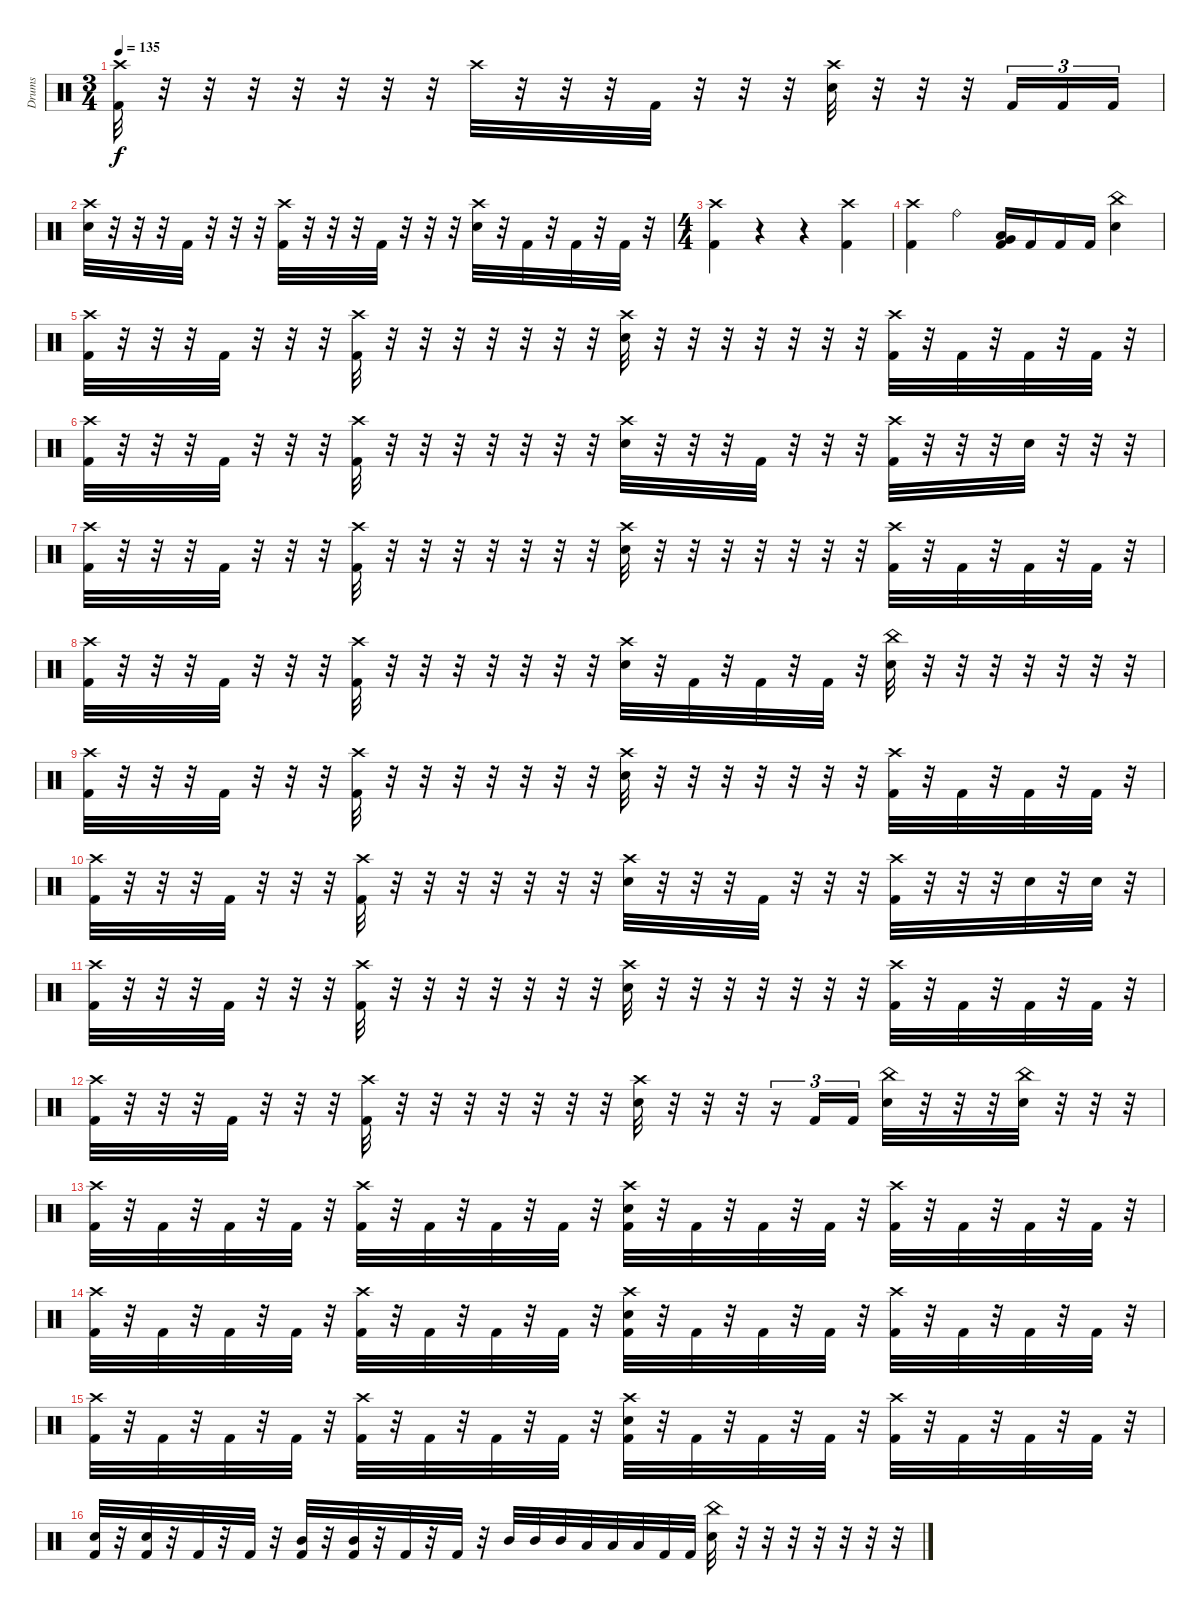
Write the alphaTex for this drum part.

\track ("Drums" "Drums") {instrument percussion}
\staff {score}
\articulation defaults
\ts (3 4)
\tempo 135
\clef neutral
\ks c
("Crash high (hit)" "Kick (hit) 2").32{dy f} r.32 r.32 r.32 r.32 r.32 r.32 r.32 "Crash high (hit)".32 r.32 r.32 r.32 "Kick (hit) 2".32 r.32 r.32 r.32 ("Crash high (hit)" "Electric Snare (hit)").32 r.32 r.32 r.32 "Kick (hit) 2".16{tu (3 2)} "Kick (hit) 2".16{tu (3 2)} "Kick (hit) 2".16{tu (3 2)} |
("Crash high (hit)" "Electric Snare (hit)").32 r.32 r.32 r.32 "Kick (hit) 2".32 r.32 r.32 r.32 ("Crash high (hit)" "Kick (hit) 2").32 r.32 r.32 r.32 "Kick (hit) 2".32 r.32 r.32 r.32 ("Crash high (hit)" "Electric Snare (hit)").32 r.32 "Kick (hit) 2".32 r.32 "Kick (hit) 2".32 r.32 "Kick (hit) 2".32 r.32 |
\ts (4 4)
("Crash high (hit)" "Kick (hit) 2").4 r.4 r.4 ("Crash high (hit)" "Kick (hit) 2").4 |
("Crash high (hit)" "Kick (hit) 2").4 "Ride (bell)".4 ("Low Tom (hit)" "Very Low Tom (hit)" "Kick (hit) 2").16 "Kick (hit) 2".16 "Kick (hit) 2".16 "Kick (hit) 2".16 ("China (hit)" "Electric Snare (hit)").4 |
("Crash high (hit)" "Kick (hit) 2").32 r.32 r.32 r.32 "Kick (hit) 2".32 r.32 r.32 r.32 ("Crash high (hit)" "Kick (hit) 2").32 r.32 r.32 r.32 r.32 r.32 r.32 r.32 ("Crash high (hit)" "Electric Snare (hit)").32 r.32 r.32 r.32 r.32 r.32 r.32 r.32 ("Crash high (hit)" "Kick (hit) 2").32 r.32 "Kick (hit) 2".32 r.32 "Kick (hit) 2".32 r.32 "Kick (hit) 2".32 r.32 |
("Crash high (hit)" "Kick (hit) 2").32 r.32 r.32 r.32 "Kick (hit) 2".32 r.32 r.32 r.32 ("Crash high (hit)" "Kick (hit) 2").32 r.32 r.32 r.32 r.32 r.32 r.32 r.32 ("Crash high (hit)" "Electric Snare (hit)").32 r.32 r.32 r.32 "Kick (hit) 2".32 r.32 r.32 r.32 ("Crash high (hit)" "Kick (hit) 2").32 r.32 r.32 r.32 "Electric Snare (hit)".32 r.32 r.32 r.32 |
("Crash high (hit)" "Kick (hit) 2").32 r.32 r.32 r.32 "Kick (hit) 2".32 r.32 r.32 r.32 ("Crash high (hit)" "Kick (hit) 2").32 r.32 r.32 r.32 r.32 r.32 r.32 r.32 ("Crash high (hit)" "Electric Snare (hit)").32 r.32 r.32 r.32 r.32 r.32 r.32 r.32 ("Crash high (hit)" "Kick (hit) 2").32 r.32 "Kick (hit) 2".32 r.32 "Kick (hit) 2".32 r.32 "Kick (hit) 2".32 r.32 |
("Crash high (hit)" "Kick (hit) 2").32 r.32 r.32 r.32 "Kick (hit) 2".32 r.32 r.32 r.32 ("Crash high (hit)" "Kick (hit) 2").32 r.32 r.32 r.32 r.32 r.32 r.32 r.32 ("Crash high (hit)" "Electric Snare (hit)").32 r.32 "Kick (hit) 2".32 r.32 "Kick (hit) 2".32 r.32 "Kick (hit) 2".32 r.32 ("China (hit)" "Electric Snare (hit)").32 r.32 r.32 r.32 r.32 r.32 r.32 r.32 |
("Crash high (hit)" "Kick (hit) 2").32 r.32 r.32 r.32 "Kick (hit) 2".32 r.32 r.32 r.32 ("Crash high (hit)" "Kick (hit) 2").32 r.32 r.32 r.32 r.32 r.32 r.32 r.32 ("Crash high (hit)" "Electric Snare (hit)").32 r.32 r.32 r.32 r.32 r.32 r.32 r.32 ("Crash high (hit)" "Kick (hit) 2").32 r.32 "Kick (hit) 2".32 r.32 "Kick (hit) 2".32 r.32 "Kick (hit) 2".32 r.32 |
("Crash high (hit)" "Kick (hit) 2").32 r.32 r.32 r.32 "Kick (hit) 2".32 r.32 r.32 r.32 ("Crash high (hit)" "Kick (hit) 2").32 r.32 r.32 r.32 r.32 r.32 r.32 r.32 ("Crash high (hit)" "Electric Snare (hit)").32 r.32 r.32 r.32 "Kick (hit) 2".32 r.32 r.32 r.32 ("Crash high (hit)" "Kick (hit) 2").32 r.32 r.32 r.32 "Electric Snare (hit)".32 r.32 "Electric Snare (hit)".32 r.32 |
("Crash high (hit)" "Kick (hit) 2").32 r.32 r.32 r.32 "Kick (hit) 2".32 r.32 r.32 r.32 ("Crash high (hit)" "Kick (hit) 2").32 r.32 r.32 r.32 r.32 r.32 r.32 r.32 ("Crash high (hit)" "Electric Snare (hit)").32 r.32 r.32 r.32 r.32 r.32 r.32 r.32 ("Crash high (hit)" "Kick (hit) 2").32 r.32 "Kick (hit) 2".32 r.32 "Kick (hit) 2".32 r.32 "Kick (hit) 2".32 r.32 |
("Crash high (hit)" "Kick (hit) 2").32 r.32 r.32 r.32 "Kick (hit) 2".32 r.32 r.32 r.32 ("Crash high (hit)" "Kick (hit) 2").32 r.32 r.32 r.32 r.32 r.32 r.32 r.32 ("Crash high (hit)" "Electric Snare (hit)").32 r.32 r.32 r.32 r.16{tu (3 2)} "Kick (hit) 2".16{tu (3 2)} "Kick (hit) 2".16{tu (3 2)} ("China (hit)" "Electric Snare (hit)").32 r.32 r.32 r.32 ("China (hit)" "Electric Snare (hit)").32 r.32 r.32 r.32 |
("Crash high (hit)" "Kick (hit) 2").32 r.32 "Kick (hit) 2".32 r.32 "Kick (hit) 2".32 r.32 "Kick (hit) 2".32 r.32 ("Crash high (hit)" "Kick (hit) 2").32 r.32 "Kick (hit) 2".32 r.32 "Kick (hit) 2".32 r.32 "Kick (hit) 2".32 r.32 ("Crash high (hit)" "Electric Snare (hit)" "Kick (hit) 2").32 r.32 "Kick (hit) 2".32 r.32 "Kick (hit) 2".32 r.32 "Kick (hit) 2".32 r.32 ("Crash high (hit)" "Kick (hit) 2").32 r.32 "Kick (hit) 2".32 r.32 "Kick (hit) 2".32 r.32 "Kick (hit) 2".32 r.32 |
("Crash high (hit)" "Kick (hit) 2").32 r.32 "Kick (hit) 2".32 r.32 "Kick (hit) 2".32 r.32 "Kick (hit) 2".32 r.32 ("Crash high (hit)" "Kick (hit) 2").32 r.32 "Kick (hit) 2".32 r.32 "Kick (hit) 2".32 r.32 "Kick (hit) 2".32 r.32 ("Crash high (hit)" "Electric Snare (hit)" "Kick (hit) 2").32 r.32 "Kick (hit) 2".32 r.32 "Kick (hit) 2".32 r.32 "Kick (hit) 2".32 r.32 ("Crash high (hit)" "Kick (hit) 2").32 r.32 "Kick (hit) 2".32 r.32 "Kick (hit) 2".32 r.32 "Kick (hit) 2".32 r.32 |
("Crash high (hit)" "Kick (hit) 2").32 r.32 "Kick (hit) 2".32 r.32 "Kick (hit) 2".32 r.32 "Kick (hit) 2".32 r.32 ("Crash high (hit)" "Kick (hit) 2").32 r.32 "Kick (hit) 2".32 r.32 "Kick (hit) 2".32 r.32 "Kick (hit) 2".32 r.32 ("Crash high (hit)" "Electric Snare (hit)" "Kick (hit) 2").32 r.32 "Kick (hit) 2".32 r.32 "Kick (hit) 2".32 r.32 "Kick (hit) 2".32 r.32 ("Crash high (hit)" "Kick (hit) 2").32 r.32 "Kick (hit) 2".32 r.32 "Kick (hit) 2".32 r.32 "Kick (hit) 2".32 r.32 |
("Electric Snare (hit)" "Kick (hit) 2").32 r.32 ("Electric Snare (hit)" "Kick (hit) 2").32 r.32 "Kick (hit) 2".32 r.32 "Kick (hit) 2".32 r.32 ("Mid Tom (hit)" "Kick (hit) 2").32 r.32 ("Mid Tom (hit)" "Kick (hit) 2").32 r.32 "Kick (hit) 2".32 r.32 "Kick (hit) 2".32 r.32 "Mid Tom (hit)".32 "Mid Tom (hit)".32 "Mid Tom (hit)".32 "Low Tom (hit)".32 "Low Tom (hit)".32 "Low Tom (hit)".32 "Kick (hit) 2".32 "Kick (hit) 2".32 ("China (hit)" "Electric Snare (hit)").32 r.32 r.32 r.32 r.32 r.32 r.32 r.32
